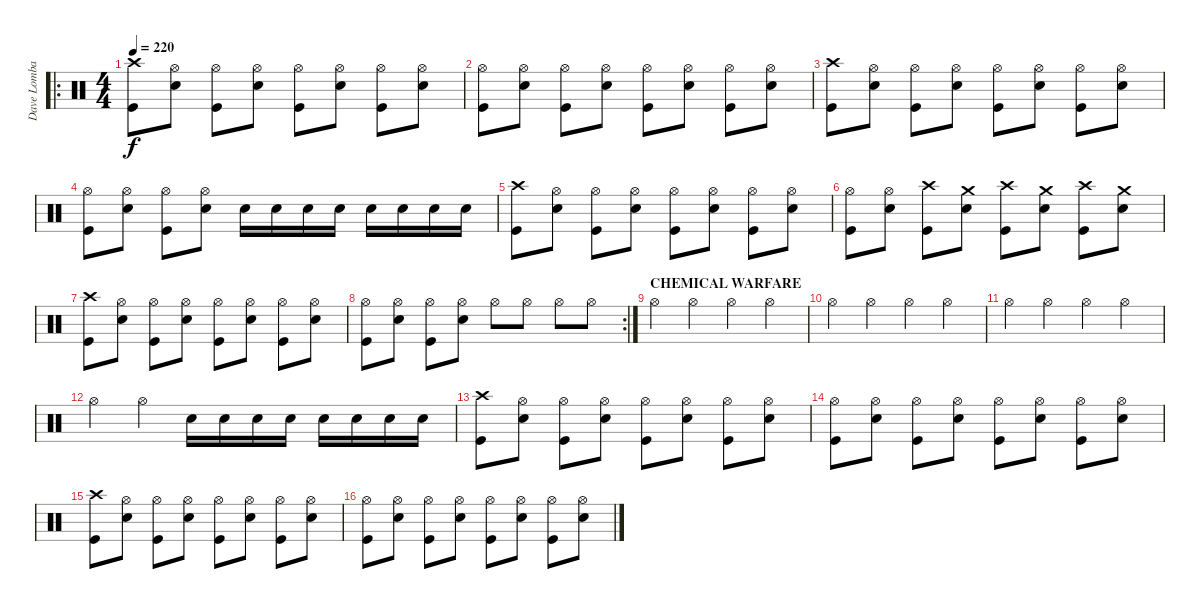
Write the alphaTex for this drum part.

\track ("Dave Lombardo" "Dave Lomba") {instrument percussion}
\staff {score}
\articulation defaults
\ro
\ts (4 4)
\tempo 220
\clef neutral
\ks c
("Crash high (hit)" "Kick (hit)").8{dy f} ("Hi-Hat (open)" "Snare (hit) 2").8 ("Hi-Hat (open)" "Kick (hit)").8 ("Hi-Hat (open)" "Snare (hit) 2").8 ("Hi-Hat (open)" "Kick (hit)").8 ("Hi-Hat (open)" "Snare (hit) 2").8 ("Hi-Hat (open)" "Kick (hit)").8 ("Hi-Hat (open)" "Snare (hit) 2").8 |
("Hi-Hat (open)" "Kick (hit)").8 ("Hi-Hat (open)" "Snare (hit) 2").8 ("Hi-Hat (open)" "Kick (hit)").8 ("Hi-Hat (open)" "Snare (hit) 2").8 ("Hi-Hat (open)" "Kick (hit)").8 ("Hi-Hat (open)" "Snare (hit) 2").8 ("Hi-Hat (open)" "Kick (hit)").8 ("Hi-Hat (open)" "Snare (hit) 2").8 |
("Crash high (hit)" "Kick (hit)").8 ("Hi-Hat (open)" "Snare (hit) 2").8 ("Hi-Hat (open)" "Kick (hit)").8 ("Hi-Hat (open)" "Snare (hit) 2").8 ("Hi-Hat (open)" "Kick (hit)").8 ("Hi-Hat (open)" "Snare (hit) 2").8 ("Hi-Hat (open)" "Kick (hit)").8 ("Hi-Hat (open)" "Snare (hit) 2").8 |
("Hi-Hat (open)" "Kick (hit)").8 ("Hi-Hat (open)" "Snare (hit) 2").8 ("Hi-Hat (open)" "Kick (hit)").8 ("Hi-Hat (open)" "Snare (hit) 2").8 "Snare (hit) 2".16 "Snare (hit) 2".16 "Snare (hit) 2".16 "Snare (hit) 2".16 "Snare (hit) 2".16 "Snare (hit) 2".16 "Snare (hit) 2".16 "Snare (hit) 2".16 |
("Crash high (hit)" "Kick (hit)").8 ("Hi-Hat (open)" "Snare (hit) 2").8 ("Hi-Hat (open)" "Kick (hit)").8 ("Hi-Hat (open)" "Snare (hit) 2").8 ("Hi-Hat (open)" "Kick (hit)").8 ("Hi-Hat (open)" "Snare (hit) 2").8 ("Hi-Hat (open)" "Kick (hit)").8 ("Hi-Hat (open)" "Snare (hit) 2").8 |
("Hi-Hat (open)" "Kick (hit)").8 ("Hi-Hat (open)" "Snare (hit) 2").8 ("Crash high (hit)" "Kick (hit)").8 ("Crash medium (hit)" "Snare (hit) 2").8 ("Crash high (hit)" "Kick (hit)").8 ("Crash medium (hit)" "Snare (hit) 2").8 ("Crash high (hit)" "Kick (hit)").8 ("Crash medium (hit)" "Snare (hit) 2").8 |
("Crash high (hit)" "Kick (hit)").8 ("Hi-Hat (open)" "Snare (hit) 2").8 ("Hi-Hat (open)" "Kick (hit)").8 ("Hi-Hat (open)" "Snare (hit) 2").8 ("Hi-Hat (open)" "Kick (hit)").8 ("Hi-Hat (open)" "Snare (hit) 2").8 ("Hi-Hat (open)" "Kick (hit)").8 ("Hi-Hat (open)" "Snare (hit) 2").8 |
\rc 2
("Hi-Hat (open)" "Kick (hit)").8 ("Hi-Hat (open)" "Snare (hit) 2").8 ("Hi-Hat (open)" "Kick (hit)").8 ("Hi-Hat (open)" "Snare (hit) 2").8 "Hi-Hat (open)".8 "Hi-Hat (open)".8 "Hi-Hat (open)".8 "Hi-Hat (open)".8 |
\section ("" "CHEMICAL WARFARE")
"Hi-Hat (open)".4 "Hi-Hat (open)".4 "Hi-Hat (open)".4 "Hi-Hat (open)".4 |
"Hi-Hat (open)".4 "Hi-Hat (open)".4 "Hi-Hat (open)".4 "Hi-Hat (open)".4 |
"Hi-Hat (open)".4 "Hi-Hat (open)".4 "Hi-Hat (open)".4 "Hi-Hat (open)".4 |
"Hi-Hat (open)".4 "Hi-Hat (open)".4 "Snare (hit) 2".16 "Snare (hit) 2".16 "Snare (hit) 2".16 "Snare (hit) 2".16 "Snare (hit) 2".16 "Snare (hit) 2".16 "Snare (hit) 2".16 "Snare (hit) 2".16 |
("Crash high (hit)" "Kick (hit)").8 ("Hi-Hat (open)" "Snare (hit) 2").8 ("Hi-Hat (open)" "Kick (hit)").8 ("Hi-Hat (open)" "Snare (hit) 2").8 ("Hi-Hat (open)" "Kick (hit)").8 ("Hi-Hat (open)" "Snare (hit) 2").8 ("Hi-Hat (open)" "Kick (hit)").8 ("Hi-Hat (open)" "Snare (hit) 2").8 |
("Hi-Hat (open)" "Kick (hit)").8 ("Hi-Hat (open)" "Snare (hit) 2").8 ("Hi-Hat (open)" "Kick (hit)").8 ("Hi-Hat (open)" "Snare (hit) 2").8 ("Hi-Hat (open)" "Kick (hit)").8 ("Hi-Hat (open)" "Snare (hit) 2").8 ("Hi-Hat (open)" "Kick (hit)").8 ("Hi-Hat (open)" "Snare (hit) 2").8 |
("Crash high (hit)" "Kick (hit)").8 ("Hi-Hat (open)" "Snare (hit) 2").8 ("Hi-Hat (open)" "Kick (hit)").8 ("Hi-Hat (open)" "Snare (hit) 2").8 ("Hi-Hat (open)" "Kick (hit)").8 ("Hi-Hat (open)" "Snare (hit) 2").8 ("Hi-Hat (open)" "Kick (hit)").8 ("Hi-Hat (open)" "Snare (hit) 2").8 |
("Hi-Hat (open)" "Kick (hit)").8 ("Hi-Hat (open)" "Snare (hit) 2").8 ("Hi-Hat (open)" "Kick (hit)").8 ("Hi-Hat (open)" "Snare (hit) 2").8 ("Hi-Hat (open)" "Kick (hit)").8 ("Hi-Hat (open)" "Snare (hit) 2").8 ("Hi-Hat (open)" "Kick (hit)").8 ("Hi-Hat (open)" "Snare (hit) 2").8
